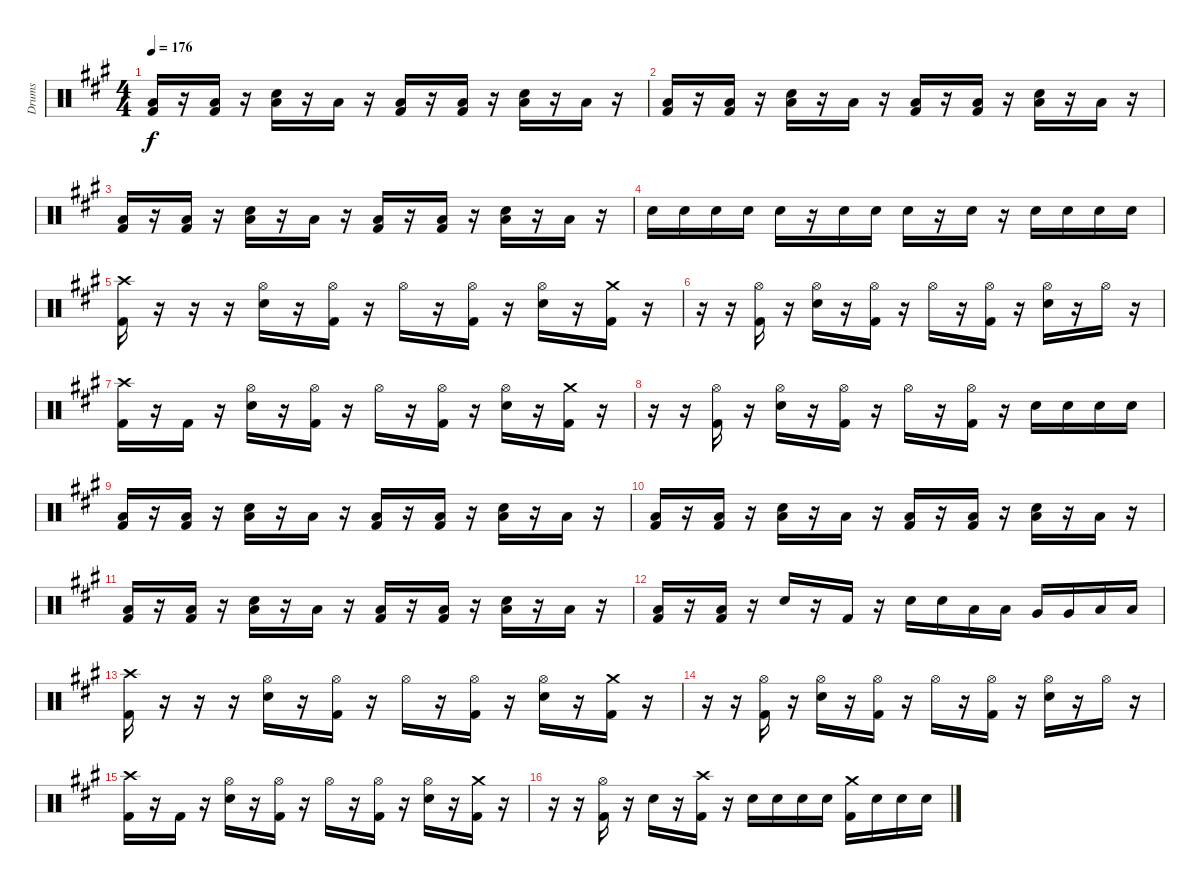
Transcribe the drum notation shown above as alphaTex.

\track ("Drums" "Drums") {instrument percussion}
\staff {score}
\articulation defaults
\ts (4 4)
\tempo 176
\clef neutral
\ks a
("Low Floor Tom (hit)" "Kick (hit) 2").16{dy f} r.16 ("Low Floor Tom (hit)" "Kick (hit) 2").16 r.16 ("Low Floor Tom (hit)" "Electric Snare (hit)").16 r.16 "Low Floor Tom (hit)".16 r.16 ("Low Floor Tom (hit)" "Kick (hit) 2").16 r.16 ("Low Floor Tom (hit)" "Kick (hit) 2").16 r.16 ("Low Floor Tom (hit)" "Electric Snare (hit)").16 r.16 "Low Floor Tom (hit)".16 r.16 |
("Low Floor Tom (hit)" "Kick (hit) 2").16 r.16 ("Low Floor Tom (hit)" "Kick (hit) 2").16 r.16 ("Low Floor Tom (hit)" "Electric Snare (hit)").16 r.16 "Low Floor Tom (hit)".16 r.16 ("Low Floor Tom (hit)" "Kick (hit) 2").16 r.16 ("Low Floor Tom (hit)" "Kick (hit) 2").16 r.16 ("Low Floor Tom (hit)" "Electric Snare (hit)").16 r.16 "Low Floor Tom (hit)".16 r.16 |
("Low Floor Tom (hit)" "Kick (hit) 2").16 r.16 ("Low Floor Tom (hit)" "Kick (hit) 2").16 r.16 ("Low Floor Tom (hit)" "Electric Snare (hit)").16 r.16 "Low Floor Tom (hit)".16 r.16 ("Low Floor Tom (hit)" "Kick (hit) 2").16 r.16 ("Low Floor Tom (hit)" "Kick (hit) 2").16 r.16 ("Low Floor Tom (hit)" "Electric Snare (hit)").16 r.16 "Low Floor Tom (hit)".16 r.16 |
"Electric Snare (hit)".16 "Electric Snare (hit)".16 "Electric Snare (hit)".16 "Electric Snare (hit)".16 "Electric Snare (hit)".16 r.16 "Electric Snare (hit)".16 "Electric Snare (hit)".16 "Electric Snare (hit)".16 r.16 "Electric Snare (hit)".16 r.16 "Electric Snare (hit)".16 "Electric Snare (hit)".16 "Electric Snare (hit)".16 "Electric Snare (hit)".16 |
("Crash high (hit)" "Kick (hit) 2").16 r.16 r.16 r.16 ("Hi-Hat (open)" "Electric Snare (hit)").16 r.16 ("Hi-Hat (open)" "Kick (hit) 2").16 r.16 "Hi-Hat (open)".16 r.16 ("Hi-Hat (open)" "Kick (hit) 2").16 r.16 ("Hi-Hat (open)" "Electric Snare (hit)").16 r.16 ("Crash medium (hit)" "Kick (hit) 2").16 r.16 |
r.16 r.16 ("Hi-Hat (open)" "Kick (hit) 2").16 r.16 ("Hi-Hat (open)" "Electric Snare (hit)").16 r.16 ("Hi-Hat (open)" "Kick (hit) 2").16 r.16 "Hi-Hat (open)".16 r.16 ("Hi-Hat (open)" "Kick (hit) 2").16 r.16 ("Hi-Hat (open)" "Electric Snare (hit)").16 r.16 "Hi-Hat (open)".16 r.16 |
("Crash high (hit)" "Kick (hit) 2").16 r.16 "Kick (hit) 2".16 r.16 ("Hi-Hat (open)" "Electric Snare (hit)").16 r.16 ("Hi-Hat (open)" "Kick (hit) 2").16 r.16 "Hi-Hat (open)".16 r.16 ("Hi-Hat (open)" "Kick (hit) 2").16 r.16 ("Hi-Hat (open)" "Electric Snare (hit)").16 r.16 ("Crash medium (hit)" "Kick (hit) 2").16 r.16 |
r.16 r.16 ("Hi-Hat (open)" "Kick (hit) 2").16 r.16 ("Hi-Hat (open)" "Electric Snare (hit)").16 r.16 ("Hi-Hat (open)" "Kick (hit) 2").16 r.16 "Hi-Hat (open)".16 r.16 ("Hi-Hat (open)" "Kick (hit) 2").16 r.16 "Electric Snare (hit)".16 "Electric Snare (hit)".16 "Electric Snare (hit)".16 "Electric Snare (hit)".16 |
("Low Floor Tom (hit)" "Kick (hit) 2").16 r.16 ("Low Floor Tom (hit)" "Kick (hit) 2").16 r.16 ("Low Floor Tom (hit)" "Electric Snare (hit)").16 r.16 "Low Floor Tom (hit)".16 r.16 ("Low Floor Tom (hit)" "Kick (hit) 2").16 r.16 ("Low Floor Tom (hit)" "Kick (hit) 2").16 r.16 ("Low Floor Tom (hit)" "Electric Snare (hit)").16 r.16 "Low Floor Tom (hit)".16 r.16 |
("Low Floor Tom (hit)" "Kick (hit) 2").16 r.16 ("Low Floor Tom (hit)" "Kick (hit) 2").16 r.16 ("Low Floor Tom (hit)" "Electric Snare (hit)").16 r.16 "Low Floor Tom (hit)".16 r.16 ("Low Floor Tom (hit)" "Kick (hit) 2").16 r.16 ("Low Floor Tom (hit)" "Kick (hit) 2").16 r.16 ("Low Floor Tom (hit)" "Electric Snare (hit)").16 r.16 "Low Floor Tom (hit)".16 r.16 |
("Low Floor Tom (hit)" "Kick (hit) 2").16 r.16 ("Low Floor Tom (hit)" "Kick (hit) 2").16 r.16 ("Low Floor Tom (hit)" "Electric Snare (hit)").16 r.16 "Low Floor Tom (hit)".16 r.16 ("Low Floor Tom (hit)" "Kick (hit) 2").16 r.16 ("Low Floor Tom (hit)" "Kick (hit) 2").16 r.16 ("Low Floor Tom (hit)" "Electric Snare (hit)").16 r.16 "Low Floor Tom (hit)".16 r.16 |
("Low Floor Tom (hit)" "Kick (hit) 2").16 r.16 ("Low Floor Tom (hit)" "Kick (hit) 2").16 r.16 "Electric Snare (hit)".16 r.16 "Kick (hit) 2".16 r.16 "Electric Snare (hit)".16 "Electric Snare (hit)".16 "Low Tom (hit)".16 "Low Tom (hit)".16 "Very Low Tom (hit)".16 "Very Low Tom (hit)".16 "Low Floor Tom (hit)".16 "Low Floor Tom (hit)".16 |
("Crash high (hit)" "Kick (hit) 2").16 r.16 r.16 r.16 ("Hi-Hat (open)" "Electric Snare (hit)").16 r.16 ("Hi-Hat (open)" "Kick (hit) 2").16 r.16 "Hi-Hat (open)".16 r.16 ("Hi-Hat (open)" "Kick (hit) 2").16 r.16 ("Hi-Hat (open)" "Electric Snare (hit)").16 r.16 ("Crash medium (hit)" "Kick (hit) 2").16 r.16 |
r.16 r.16 ("Hi-Hat (open)" "Kick (hit) 2").16 r.16 ("Hi-Hat (open)" "Electric Snare (hit)").16 r.16 ("Hi-Hat (open)" "Kick (hit) 2").16 r.16 "Hi-Hat (open)".16 r.16 ("Hi-Hat (open)" "Kick (hit) 2").16 r.16 ("Hi-Hat (open)" "Electric Snare (hit)").16 r.16 "Hi-Hat (open)".16 r.16 |
("Crash high (hit)" "Kick (hit) 2").16 r.16 "Kick (hit) 2".16 r.16 ("Hi-Hat (open)" "Electric Snare (hit)").16 r.16 ("Hi-Hat (open)" "Kick (hit) 2").16 r.16 "Hi-Hat (open)".16 r.16 ("Hi-Hat (open)" "Kick (hit) 2").16 r.16 ("Hi-Hat (open)" "Electric Snare (hit)").16 r.16 ("Crash medium (hit)" "Kick (hit) 2").16 r.16 |
r.16 r.16 ("Hi-Hat (open)" "Kick (hit) 2").16 r.16 "Electric Snare (hit)".16 r.16 ("Crash high (hit)" "Kick (hit) 2").16 r.16 "Electric Snare (hit)".16 "Electric Snare (hit)".16 "Electric Snare (hit)".16 "Electric Snare (hit)".16 ("Crash medium (hit)" "Kick (hit) 2").16 "Electric Snare (hit)".16 "Electric Snare (hit)".16 "Electric Snare (hit)".16
